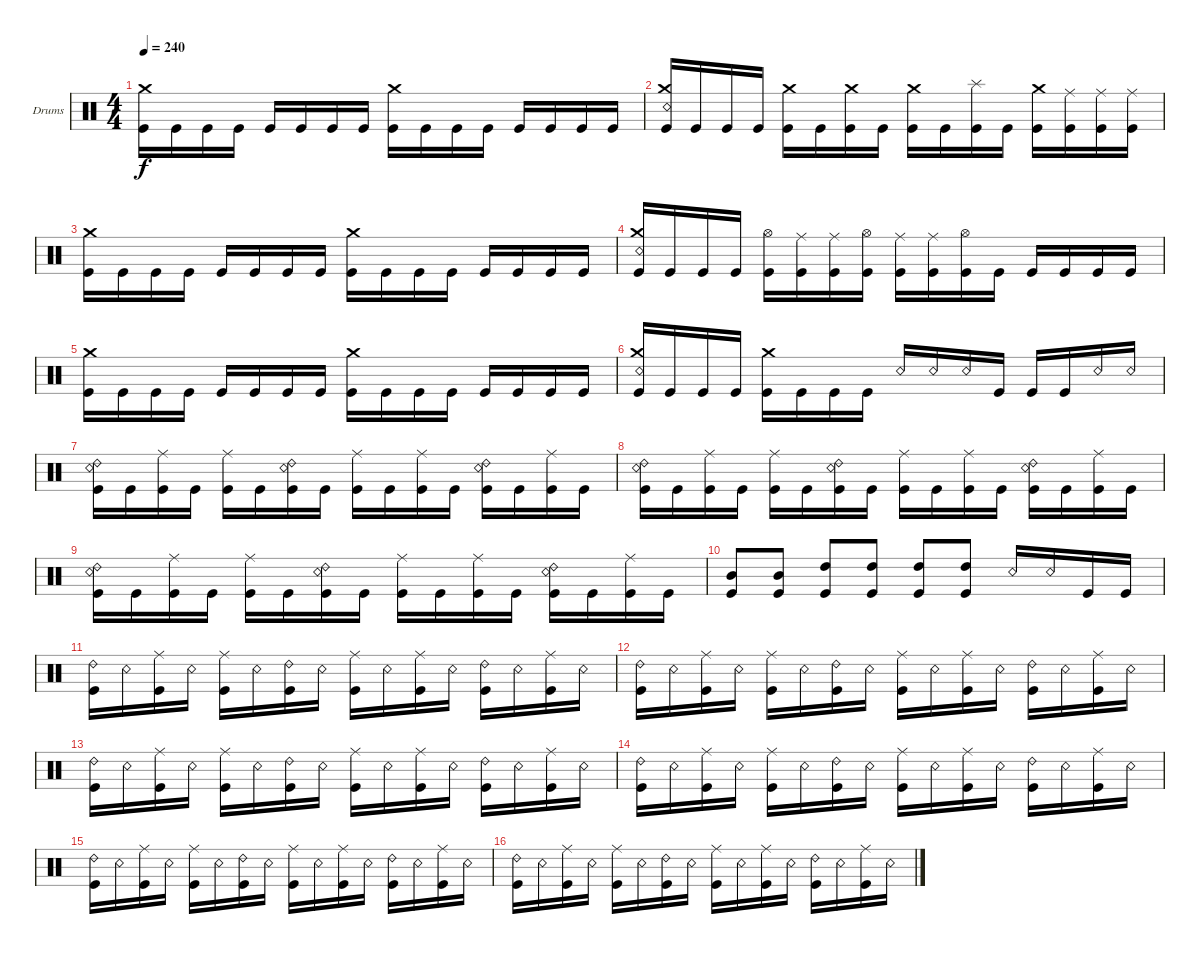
\bracketExtendMode groupsimilarinstruments
\firstSystemTrackNameOrientation horizontal
\otherSystemsTrackNameOrientation horizontal
\track ("Drumkit" "Drums") {instrument percussion}
\staff {score}
\articulation defaults
\ts (4 4)
\tempo 240
\clef neutral
\ks c
("Kick (hit)" "Crash medium (hit)").16{dy f} "Kick (hit)".16 "Kick (hit)".16 "Kick (hit)".16 "Kick (hit)".16 "Kick (hit)".16 "Kick (hit)".16 "Kick (hit)".16 ("Kick (hit)" "Crash medium (hit)").16 "Kick (hit)".16 "Kick (hit)".16 "Kick (hit)".16 "Kick (hit)".16 "Kick (hit)".16 "Kick (hit)".16 "Kick (hit)".16 |
("Kick (hit)" "Crash medium (hit)" "Snare (rim shot)").16 "Kick (hit)".16 "Kick (hit)".16 "Kick (hit)".16 ("Kick (hit)" "Crash medium (hit)").16 "Kick (hit)".16 ("Kick (hit)" "Crash medium (hit)").16 "Kick (hit)".16 ("Kick (hit)" "Crash medium (hit)").16 "Kick (hit)".16 ("Kick (hit)" "Splash (hit)").16 "Kick (hit)".16 ("Kick (hit)" "Crash medium (hit)").16 ("Kick (hit)" "Ride (middle)").16 ("Kick (hit)" "Ride (middle)").16 ("Kick (hit)" "Ride (middle)").16 |
("Kick (hit)" "Crash medium (hit)").16 "Kick (hit)".16 "Kick (hit)".16 "Kick (hit)".16 "Kick (hit)".16 "Kick (hit)".16 "Kick (hit)".16 "Kick (hit)".16 ("Kick (hit)" "Crash medium (hit)").16 "Kick (hit)".16 "Kick (hit)".16 "Kick (hit)".16 "Kick (hit)".16 "Kick (hit)".16 "Kick (hit)".16 "Kick (hit)".16 |
("Kick (hit)" "Crash medium (hit)" "Snare (rim shot)").16 "Kick (hit)".16 "Kick (hit)".16 "Kick (hit)".16 ("Kick (hit)" "Hi-Hat (open)").16 ("Kick (hit)" "Ride (middle)").16 ("Kick (hit)" "Ride (middle)").16 ("Kick (hit)" "Hi-Hat (open)").16 ("Kick (hit)" "Ride (middle)").16 ("Kick (hit)" "Ride (middle)").16 ("Kick (hit)" "Hi-Hat (open)").16 "Kick (hit)".16 "Kick (hit)".16 "Kick (hit)".16 "Kick (hit)".16 "Kick (hit)".16 |
("Kick (hit)" "Crash medium (hit)").16 "Kick (hit)".16 "Kick (hit)".16 "Kick (hit)".16 "Kick (hit)".16 "Kick (hit)".16 "Kick (hit)".16 "Kick (hit)".16 ("Kick (hit)" "Crash medium (hit)").16 "Kick (hit)".16 "Kick (hit)".16 "Kick (hit)".16 "Kick (hit)".16 "Kick (hit)".16 "Kick (hit)".16 "Kick (hit)".16 |
("Kick (hit)" "Crash medium (hit)" "Snare (rim shot)").16 "Kick (hit)".16 "Kick (hit)".16 "Kick (hit)".16 ("Kick (hit)" "Crash medium (hit)").16 "Kick (hit)".16 "Kick (hit)".16 "Kick (hit)".16 "Snare (rim shot)".16 "Snare (rim shot)".16 "Snare (rim shot)".16 "Kick (hit)".16 "Kick (hit)".16 "Kick (hit)".16 "Snare (rim shot)".16 "Snare (rim shot)".16 |
("Kick (hit)" "Ride (bell) 2" "Snare (rim shot)").16 "Kick (hit)".16 ("Kick (hit)" "Ride (middle)").16 "Kick (hit)".16 ("Kick (hit)" "Ride (middle)").16 "Kick (hit)".16 ("Kick (hit)" "Ride (bell) 2" "Snare (rim shot)").16 "Kick (hit)".16 ("Kick (hit)" "Ride (middle)").16 "Kick (hit)".16 ("Kick (hit)" "Ride (middle)").16 "Kick (hit)".16 ("Kick (hit)" "Ride (bell) 2" "Snare (rim shot)").16 "Kick (hit)".16 ("Kick (hit)" "Ride (middle)").16 "Kick (hit)".16 |
("Kick (hit)" "Ride (bell) 2" "Snare (rim shot)").16 "Kick (hit)".16 ("Kick (hit)" "Ride (middle)").16 "Kick (hit)".16 ("Kick (hit)" "Ride (middle)").16 "Kick (hit)".16 ("Kick (hit)" "Ride (bell) 2" "Snare (rim shot)").16 "Kick (hit)".16 ("Kick (hit)" "Ride (middle)").16 "Kick (hit)".16 ("Kick (hit)" "Ride (middle)").16 "Kick (hit)".16 ("Kick (hit)" "Ride (bell) 2" "Snare (rim shot)").16 "Kick (hit)".16 ("Kick (hit)" "Ride (middle)").16 "Kick (hit)".16 |
("Kick (hit)" "Ride (bell) 2" "Snare (rim shot)").16 "Kick (hit)".16 ("Kick (hit)" "Ride (middle)").16 "Kick (hit)".16 ("Kick (hit)" "Ride (middle)").16 "Kick (hit)".16 ("Kick (hit)" "Ride (bell) 2" "Snare (rim shot)").16 "Kick (hit)".16 ("Kick (hit)" "Ride (middle)").16 "Kick (hit)".16 ("Kick (hit)" "Ride (middle)").16 "Kick (hit)".16 ("Kick (hit)" "Ride (bell) 2" "Snare (rim shot)").16 "Kick (hit)".16 ("Kick (hit)" "Ride (middle)").16 "Kick (hit)".16 |
("Kick (hit)" "Mid Tom (hit)").8 ("Kick (hit)" "Mid Tom (hit)").8 ("Kick (hit)" "High Tom (hit)").8 ("Kick (hit)" "High Tom (hit)").8 ("Kick (hit)" "High Tom (hit)").8 ("Kick (hit)" "High Tom (hit)").8 "Snare (rim shot)".16 "Snare (rim shot)".16 "Kick (hit)".16 "Kick (hit)".16 |
("Ride (bell) 2" "Kick (hit)").16 "Snare (rim shot)".16 ("Ride (middle)" "Kick (hit)").16 "Snare (rim shot)".16 ("Ride (middle)" "Kick (hit)").16 "Snare (rim shot)".16 ("Ride (bell) 2" "Kick (hit)").16 "Snare (rim shot)".16 ("Ride (middle)" "Kick (hit)").16 "Snare (rim shot)".16 ("Ride (middle)" "Kick (hit)").16 "Snare (rim shot)".16 ("Ride (bell) 2" "Kick (hit)").16 "Snare (rim shot)".16 ("Ride (middle)" "Kick (hit)").16 "Snare (rim shot)".16 |
("Ride (bell) 2" "Kick (hit)").16 "Snare (rim shot)".16 ("Ride (middle)" "Kick (hit)").16 "Snare (rim shot)".16 ("Ride (middle)" "Kick (hit)").16 "Snare (rim shot)".16 ("Ride (bell) 2" "Kick (hit)").16 "Snare (rim shot)".16 ("Ride (middle)" "Kick (hit)").16 "Snare (rim shot)".16 ("Ride (middle)" "Kick (hit)").16 "Snare (rim shot)".16 ("Ride (bell) 2" "Kick (hit)").16 "Snare (rim shot)".16 ("Ride (middle)" "Kick (hit)").16 "Snare (rim shot)".16 |
("Ride (bell) 2" "Kick (hit)").16 "Snare (rim shot)".16 ("Ride (middle)" "Kick (hit)").16 "Snare (rim shot)".16 ("Ride (middle)" "Kick (hit)").16 "Snare (rim shot)".16 ("Ride (bell) 2" "Kick (hit)").16 "Snare (rim shot)".16 ("Ride (middle)" "Kick (hit)").16 "Snare (rim shot)".16 ("Ride (middle)" "Kick (hit)").16 "Snare (rim shot)".16 ("Ride (bell) 2" "Kick (hit)").16 "Snare (rim shot)".16 ("Ride (middle)" "Kick (hit)").16 "Snare (rim shot)".16 |
("Ride (bell) 2" "Kick (hit)").16 "Snare (rim shot)".16 ("Ride (middle)" "Kick (hit)").16 "Snare (rim shot)".16 ("Ride (middle)" "Kick (hit)").16 "Snare (rim shot)".16 ("Ride (bell) 2" "Kick (hit)").16 "Snare (rim shot)".16 ("Ride (middle)" "Kick (hit)").16 "Snare (rim shot)".16 ("Ride (middle)" "Kick (hit)").16 "Snare (rim shot)".16 ("Ride (bell) 2" "Kick (hit)").16 "Snare (rim shot)".16 ("Ride (middle)" "Kick (hit)").16 "Snare (rim shot)".16 |
("Ride (bell) 2" "Kick (hit)").16 "Snare (rim shot)".16 ("Ride (middle)" "Kick (hit)").16 "Snare (rim shot)".16 ("Ride (middle)" "Kick (hit)").16 "Snare (rim shot)".16 ("Ride (bell) 2" "Kick (hit)").16 "Snare (rim shot)".16 ("Ride (middle)" "Kick (hit)").16 "Snare (rim shot)".16 ("Ride (middle)" "Kick (hit)").16 "Snare (rim shot)".16 ("Ride (bell) 2" "Kick (hit)").16 "Snare (rim shot)".16 ("Ride (middle)" "Kick (hit)").16 "Snare (rim shot)".16 |
("Ride (bell) 2" "Kick (hit)").16 "Snare (rim shot)".16 ("Ride (middle)" "Kick (hit)").16 "Snare (rim shot)".16 ("Ride (middle)" "Kick (hit)").16 "Snare (rim shot)".16 ("Ride (bell) 2" "Kick (hit)").16 "Snare (rim shot)".16 ("Ride (middle)" "Kick (hit)").16 "Snare (rim shot)".16 ("Ride (middle)" "Kick (hit)").16 "Snare (rim shot)".16 ("Ride (bell) 2" "Kick (hit)").16 "Snare (rim shot)".16 ("Ride (middle)" "Kick (hit)").16 "Snare (rim shot)".16
